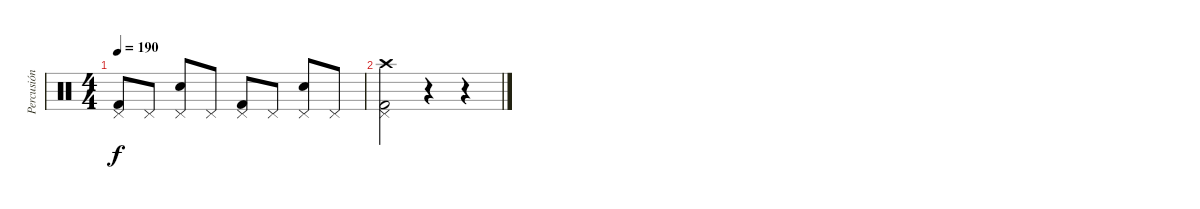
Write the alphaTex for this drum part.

\track ("Percusión" "Percusión") {instrument percussion}
\staff {score}
\articulation defaults
\ts (4 4)
\tempo 190
\clef neutral
\ks c
("Pedal Hi-Hat (hit)" "Kick (hit) 2").8{dy f} "Pedal Hi-Hat (hit)".8 ("Pedal Hi-Hat (hit)" "Electric Snare (hit)").8 "Pedal Hi-Hat (hit)".8 ("Pedal Hi-Hat (hit)" "Kick (hit) 2").8 "Pedal Hi-Hat (hit)".8 ("Pedal Hi-Hat (hit)" "Electric Snare (hit)").8 "Pedal Hi-Hat (hit)".8 |
("Pedal Hi-Hat (hit)" "Kick (hit) 2" "Crash high (hit)").2 r.4 r.4
